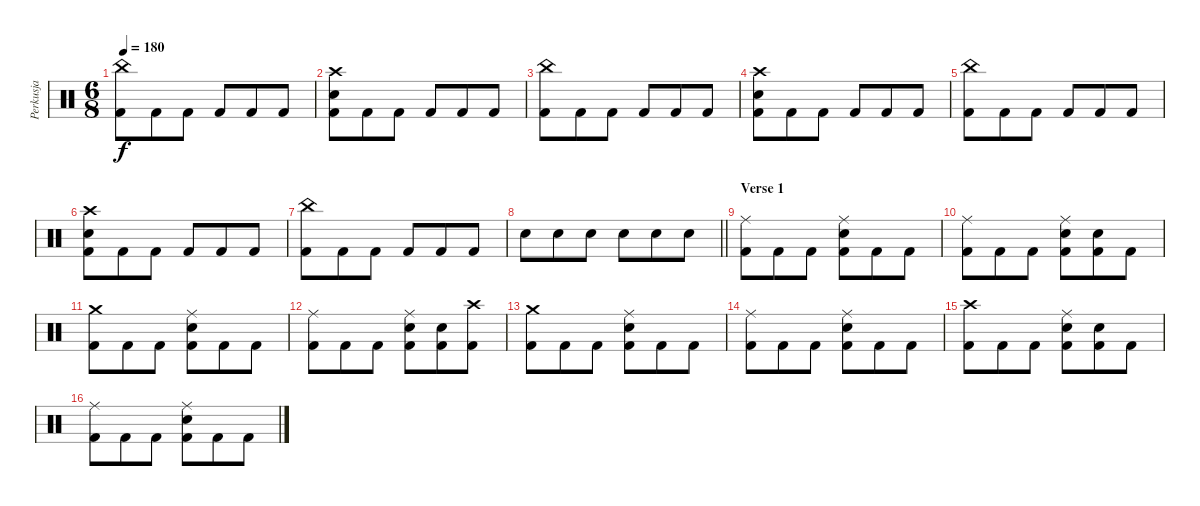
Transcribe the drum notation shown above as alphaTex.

\track ("Perkusja" "Perkusja") {instrument percussion}
\staff {score}
\articulation defaults
\ts (6 8)
\tempo 180
\clef neutral
\ks c
("Kick (hit) 2" "China (hit)").8{dy f} "Kick (hit) 2".8 "Kick (hit) 2".8 "Kick (hit) 2".8 "Kick (hit) 2".8 "Kick (hit) 2".8 |
("Kick (hit) 2" "Snare (hit) 2" "Crash high (hit)").8 "Kick (hit) 2".8 "Kick (hit) 2".8 "Kick (hit) 2".8 "Kick (hit) 2".8 "Kick (hit) 2".8 |
("Kick (hit) 2" "China (hit)").8 "Kick (hit) 2".8 "Kick (hit) 2".8 "Kick (hit) 2".8 "Kick (hit) 2".8 "Kick (hit) 2".8 |
("Kick (hit) 2" "Snare (hit) 2" "Crash high (hit)").8 "Kick (hit) 2".8 "Kick (hit) 2".8 "Kick (hit) 2".8 "Kick (hit) 2".8 "Kick (hit) 2".8 |
("Kick (hit) 2" "China (hit)").8 "Kick (hit) 2".8 "Kick (hit) 2".8 "Kick (hit) 2".8 "Kick (hit) 2".8 "Kick (hit) 2".8 |
("Kick (hit) 2" "Snare (hit) 2" "Crash high (hit)").8 "Kick (hit) 2".8 "Kick (hit) 2".8 "Kick (hit) 2".8 "Kick (hit) 2".8 "Kick (hit) 2".8 |
("Kick (hit) 2" "China (hit)").8 "Kick (hit) 2".8 "Kick (hit) 2".8 "Kick (hit) 2".8 "Kick (hit) 2".8 "Kick (hit) 2".8 |
\barLineRight lightlight "Snare (hit) 2".8 "Snare (hit) 2".8 "Snare (hit) 2".8 "Snare (hit) 2".8 "Snare (hit) 2".8 "Snare (hit) 2".8
|
\section ("" "Verse 1")
("Ride (middle)" "Kick (hit) 2").8 "Kick (hit) 2".8 "Kick (hit) 2".8 ("Ride (middle)" "Snare (hit) 2" "Kick (hit) 2").8 "Kick (hit) 2".8 "Kick (hit) 2".8 |
("Ride (middle)" "Kick (hit) 2").8 "Kick (hit) 2".8 "Kick (hit) 2".8 ("Ride (middle)" "Snare (hit) 2" "Kick (hit) 2").8 ("Snare (hit) 2" "Kick (hit) 2").8 "Kick (hit) 2".8 |
("Crash medium (hit)" "Kick (hit) 2").8 "Kick (hit) 2".8 "Kick (hit) 2".8 ("Ride (middle)" "Snare (hit) 2" "Kick (hit) 2").8 "Kick (hit) 2".8 "Kick (hit) 2".8 |
("Ride (middle)" "Kick (hit) 2").8 "Kick (hit) 2".8 "Kick (hit) 2".8 ("Ride (middle)" "Snare (hit) 2" "Kick (hit) 2").8 ("Snare (hit) 2" "Kick (hit) 2").8 ("Crash high (hit)" "Kick (hit) 2").8 |
("Crash medium (hit)" "Kick (hit) 2").8 "Kick (hit) 2".8 "Kick (hit) 2".8 ("Ride (middle)" "Snare (hit) 2" "Kick (hit) 2").8 "Kick (hit) 2".8 "Kick (hit) 2".8 |
("Ride (middle)" "Kick (hit) 2").8 "Kick (hit) 2".8 "Kick (hit) 2".8 ("Ride (middle)" "Snare (hit) 2" "Kick (hit) 2").8 "Kick (hit) 2".8 "Kick (hit) 2".8 |
("Crash high (hit)" "Kick (hit) 2").8 "Kick (hit) 2".8 "Kick (hit) 2".8 ("Ride (middle)" "Snare (hit) 2" "Kick (hit) 2").8 ("Snare (hit) 2" "Kick (hit) 2").8 "Kick (hit) 2".8 |
("Ride (middle)" "Kick (hit) 2").8 "Kick (hit) 2".8 "Kick (hit) 2".8 ("Ride (middle)" "Snare (hit) 2" "Kick (hit) 2").8 "Kick (hit) 2".8 "Kick (hit) 2".8
